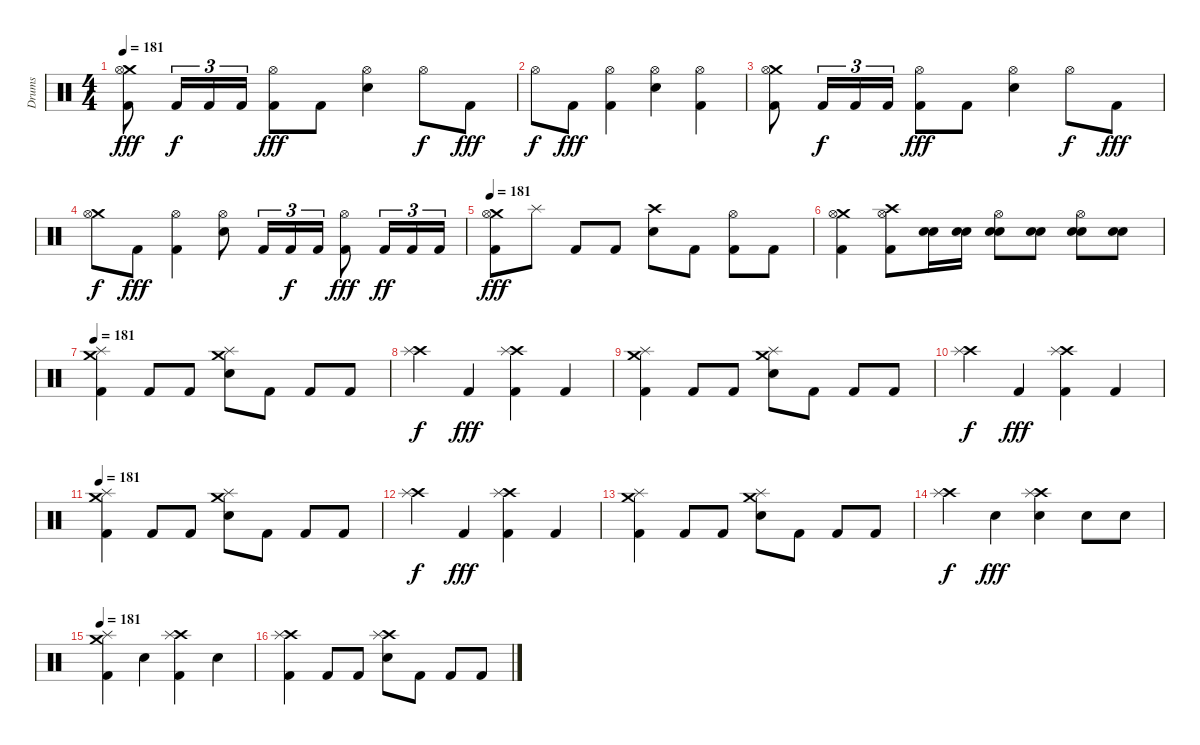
\track ("Drums" "Drums") {instrument percussion}
\staff {score}
\articulation defaults
\ts (4 4)
\tempo 181
\clef neutral
\ks c
("Crash medium (hit)" "Hi-Hat (open)" "Kick (hit) 2").8{dy fff} "Kick (hit) 2".16{tu (3 2) dy f} "Kick (hit) 2".16{tu (3 2)} "Kick (hit) 2".16{tu (3 2)} ("Hi-Hat (open)" "Kick (hit) 2").8{dy fff} "Kick (hit) 2".8 ("Hi-Hat (open)" "Snare (hit) 2").4 "Hi-Hat (open)".8{dy f} "Kick (hit) 2".8{dy fff} |
"Hi-Hat (open)".8{dy f} "Kick (hit) 2".8{dy fff} ("Hi-Hat (open)" "Kick (hit) 2").4 ("Hi-Hat (open)" "Snare (hit) 2").4 ("Hi-Hat (open)" "Kick (hit) 2").4 |
("Crash medium (hit)" "Hi-Hat (open)" "Kick (hit) 2").8 "Kick (hit) 2".16{tu (3 2) dy f} "Kick (hit) 2".16{tu (3 2)} "Kick (hit) 2".16{tu (3 2)} ("Hi-Hat (open)" "Kick (hit) 2").8{dy fff} "Kick (hit) 2".8 ("Hi-Hat (open)" "Snare (hit) 2").4 "Hi-Hat (open)".8{dy f} "Kick (hit) 2".8{dy fff} |
("Crash medium (hit)" "Hi-Hat (open)").8{dy f} "Kick (hit) 2".8{dy fff} ("Hi-Hat (open)" "Kick (hit) 2").4 ("Hi-Hat (open)" "Snare (hit) 2").8 "Kick (hit) 2".16{tu (3 2)} "Kick (hit) 2".16{tu (3 2) dy f} "Kick (hit) 2".16{tu (3 2)} ("Hi-Hat (open)" "Kick (hit) 2").8{dy fff} "Kick (hit) 2".16{tu (3 2) dy ff} "Kick (hit) 2".16{tu (3 2)} "Kick (hit) 2".16{tu (3 2)} |
\tempo 181
("Crash medium (hit)" "Hi-Hat (open)" "Kick (hit) 2").8{dy fff} "Splash (hit)".8 "Kick (hit) 2".8 "Kick (hit) 2".8 ("Crash high (hit)" "Snare (hit) 2").8 "Kick (hit) 2".8 ("Hi-Hat (open)" "Kick (hit) 2").8 "Kick (hit) 2".8 |
("Crash medium (hit)" "Hi-Hat (open)" "Kick (hit) 2").4 ("Crash high (hit)" "Hi-Hat (open)" "Kick (hit) 2").8 ("Snare (hit) 2" "Snare (hit) 2").16 ("Snare (hit) 2" "Snare (hit) 2").16 ("Hi-Hat (open)" "Snare (hit) 2" "Snare (hit) 2").8 ("Snare (hit) 2" "Snare (hit) 2").8 ("Hi-Hat (open)" "Snare (hit) 2" "Snare (hit) 2").8 ("Snare (hit) 2" "Snare (hit) 2").8 |
\tempo 181
("Crash medium (hit)" "Splash (hit)" "Kick (hit) 2").4 "Kick (hit) 2".8 "Kick (hit) 2".8 ("Crash medium (hit)" "Splash (hit)" "Snare (hit) 2").8 "Kick (hit) 2".8 "Kick (hit) 2".8 "Kick (hit) 2".8 |
("Crash high (hit)" "Splash (hit)").4{dy f} "Kick (hit) 2".4{dy fff} ("Crash high (hit)" "Splash (hit)" "Kick (hit) 2").4 "Kick (hit) 2".4 |
("Crash medium (hit)" "Splash (hit)" "Kick (hit) 2").4 "Kick (hit) 2".8 "Kick (hit) 2".8 ("Crash medium (hit)" "Splash (hit)" "Snare (hit) 2").8 "Kick (hit) 2".8 "Kick (hit) 2".8 "Kick (hit) 2".8 |
("Crash high (hit)" "Splash (hit)").4{dy f} "Kick (hit) 2".4{dy fff} ("Crash high (hit)" "Splash (hit)" "Kick (hit) 2").4 "Kick (hit) 2".4 |
\tempo 181
("Crash medium (hit)" "Splash (hit)" "Kick (hit) 2").4 "Kick (hit) 2".8 "Kick (hit) 2".8 ("Crash medium (hit)" "Splash (hit)" "Snare (hit) 2").8 "Kick (hit) 2".8 "Kick (hit) 2".8 "Kick (hit) 2".8 |
("Crash high (hit)" "Splash (hit)").4{dy f} "Kick (hit) 2".4{dy fff} ("Crash high (hit)" "Splash (hit)" "Kick (hit) 2").4 "Kick (hit) 2".4 |
("Crash medium (hit)" "Splash (hit)" "Kick (hit) 2").4 "Kick (hit) 2".8 "Kick (hit) 2".8 ("Crash medium (hit)" "Splash (hit)" "Snare (hit) 2").8 "Kick (hit) 2".8 "Kick (hit) 2".8 "Kick (hit) 2".8 |
("Crash high (hit)" "Splash (hit)").4{dy f} "Snare (hit) 2".4{dy fff} ("Crash high (hit)" "Splash (hit)" "Snare (hit) 2").4 "Snare (hit) 2".8 "Snare (hit) 2".8 |
\tempo 181
("Crash medium (hit)" "Splash (hit)" "Kick (hit) 2").4 "Snare (hit) 2".4 ("Crash high (hit)" "Splash (hit)" "Kick (hit) 2").4 "Snare (hit) 2".4 |
("Crash high (hit)" "Splash (hit)" "Kick (hit) 2").4 "Kick (hit) 2".8 "Kick (hit) 2".8 ("Crash high (hit)" "Splash (hit)" "Snare (hit) 2").8 "Kick (hit) 2".8 "Kick (hit) 2".8 "Kick (hit) 2".8
